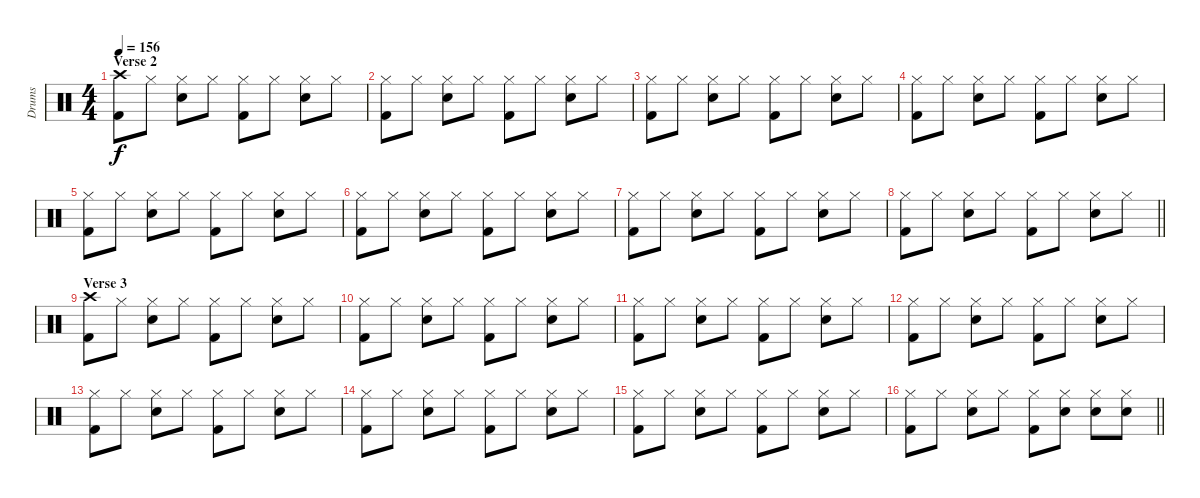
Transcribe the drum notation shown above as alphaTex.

\track ("Drums" "Drums") {instrument percussion}
\staff {score}
\articulation defaults
\ts (4 4)
\section ("" "Verse 2")
\tempo 156
\clef neutral
\ks c
("Crash high (hit)" "Kick (hit) 2").8{dy f} "Hi-Hat (closed)".8 ("Hi-Hat (closed)" "Electric Snare (hit)").8 "Hi-Hat (closed)".8 ("Hi-Hat (closed)" "Kick (hit) 2").8 "Hi-Hat (closed)".8 ("Hi-Hat (closed)" "Electric Snare (hit)").8 "Hi-Hat (closed)".8 |
("Hi-Hat (closed)" "Kick (hit) 2").8 "Hi-Hat (closed)".8 ("Hi-Hat (closed)" "Electric Snare (hit)").8 "Hi-Hat (closed)".8 ("Hi-Hat (closed)" "Kick (hit) 2").8 "Hi-Hat (closed)".8 ("Hi-Hat (closed)" "Electric Snare (hit)").8 "Hi-Hat (closed)".8 |
("Hi-Hat (closed)" "Kick (hit) 2").8 "Hi-Hat (closed)".8 ("Hi-Hat (closed)" "Electric Snare (hit)").8 "Hi-Hat (closed)".8 ("Hi-Hat (closed)" "Kick (hit) 2").8 "Hi-Hat (closed)".8 ("Hi-Hat (closed)" "Electric Snare (hit)").8 "Hi-Hat (closed)".8 |
("Hi-Hat (closed)" "Kick (hit) 2").8 "Hi-Hat (closed)".8 ("Hi-Hat (closed)" "Electric Snare (hit)").8 "Hi-Hat (closed)".8 ("Hi-Hat (closed)" "Kick (hit) 2").8 "Hi-Hat (closed)".8 ("Hi-Hat (closed)" "Electric Snare (hit)").8 "Hi-Hat (closed)".8 |
("Hi-Hat (closed)" "Kick (hit) 2").8 "Hi-Hat (closed)".8 ("Hi-Hat (closed)" "Electric Snare (hit)").8 "Hi-Hat (closed)".8 ("Hi-Hat (closed)" "Kick (hit) 2").8 "Hi-Hat (closed)".8 ("Hi-Hat (closed)" "Electric Snare (hit)").8 "Hi-Hat (closed)".8 |
("Hi-Hat (closed)" "Kick (hit) 2").8 "Hi-Hat (closed)".8 ("Hi-Hat (closed)" "Electric Snare (hit)").8 "Hi-Hat (closed)".8 ("Hi-Hat (closed)" "Kick (hit) 2").8 "Hi-Hat (closed)".8 ("Hi-Hat (closed)" "Electric Snare (hit)").8 "Hi-Hat (closed)".8 |
("Hi-Hat (closed)" "Kick (hit) 2").8 "Hi-Hat (closed)".8 ("Hi-Hat (closed)" "Electric Snare (hit)").8 "Hi-Hat (closed)".8 ("Hi-Hat (closed)" "Kick (hit) 2").8 "Hi-Hat (closed)".8 ("Hi-Hat (closed)" "Electric Snare (hit)").8 "Hi-Hat (closed)".8 |
\barLineRight lightlight
("Hi-Hat (closed)" "Kick (hit) 2").8 "Hi-Hat (closed)".8 ("Hi-Hat (closed)" "Electric Snare (hit)").8 "Hi-Hat (closed)".8 ("Hi-Hat (closed)" "Kick (hit) 2").8 "Hi-Hat (closed)".8 ("Hi-Hat (closed)" "Electric Snare (hit)").8 "Hi-Hat (closed)".8 |
\section ("" "Verse 3")
("Crash high (hit)" "Kick (hit) 2").8 "Hi-Hat (closed)".8 ("Hi-Hat (closed)" "Electric Snare (hit)").8 "Hi-Hat (closed)".8 ("Hi-Hat (closed)" "Kick (hit) 2").8 "Hi-Hat (closed)".8 ("Hi-Hat (closed)" "Electric Snare (hit)").8 "Hi-Hat (closed)".8 |
("Hi-Hat (closed)" "Kick (hit) 2").8 "Hi-Hat (closed)".8 ("Hi-Hat (closed)" "Electric Snare (hit)").8 "Hi-Hat (closed)".8 ("Hi-Hat (closed)" "Kick (hit) 2").8 "Hi-Hat (closed)".8 ("Hi-Hat (closed)" "Electric Snare (hit)").8 "Hi-Hat (closed)".8 |
("Hi-Hat (closed)" "Kick (hit) 2").8 "Hi-Hat (closed)".8 ("Hi-Hat (closed)" "Electric Snare (hit)").8 "Hi-Hat (closed)".8 ("Hi-Hat (closed)" "Kick (hit) 2").8 "Hi-Hat (closed)".8 ("Hi-Hat (closed)" "Electric Snare (hit)").8 "Hi-Hat (closed)".8 |
("Hi-Hat (closed)" "Kick (hit) 2").8 "Hi-Hat (closed)".8 ("Hi-Hat (closed)" "Electric Snare (hit)").8 "Hi-Hat (closed)".8 ("Hi-Hat (closed)" "Kick (hit) 2").8 "Hi-Hat (closed)".8 ("Hi-Hat (closed)" "Electric Snare (hit)").8 "Hi-Hat (closed)".8 |
("Hi-Hat (closed)" "Kick (hit) 2").8 "Hi-Hat (closed)".8 ("Hi-Hat (closed)" "Electric Snare (hit)").8 "Hi-Hat (closed)".8 ("Hi-Hat (closed)" "Kick (hit) 2").8 "Hi-Hat (closed)".8 ("Hi-Hat (closed)" "Electric Snare (hit)").8 "Hi-Hat (closed)".8 |
("Hi-Hat (closed)" "Kick (hit) 2").8 "Hi-Hat (closed)".8 ("Hi-Hat (closed)" "Electric Snare (hit)").8 "Hi-Hat (closed)".8 ("Hi-Hat (closed)" "Kick (hit) 2").8 "Hi-Hat (closed)".8 ("Hi-Hat (closed)" "Electric Snare (hit)").8 "Hi-Hat (closed)".8 |
("Hi-Hat (closed)" "Kick (hit) 2").8 "Hi-Hat (closed)".8 ("Hi-Hat (closed)" "Electric Snare (hit)").8 "Hi-Hat (closed)".8 ("Hi-Hat (closed)" "Kick (hit) 2").8 "Hi-Hat (closed)".8 ("Hi-Hat (closed)" "Electric Snare (hit)").8 "Hi-Hat (closed)".8 |
\barLineRight lightlight
("Hi-Hat (closed)" "Kick (hit) 2").8 "Hi-Hat (closed)".8 ("Hi-Hat (closed)" "Electric Snare (hit)").8 "Hi-Hat (closed)".8 ("Hi-Hat (closed)" "Kick (hit) 2").8 ("Hi-Hat (closed)" "Electric Snare (hit)").8 ("Hi-Hat (closed)" "Electric Snare (hit)").8 ("Hi-Hat (closed)" "Electric Snare (hit)").8
